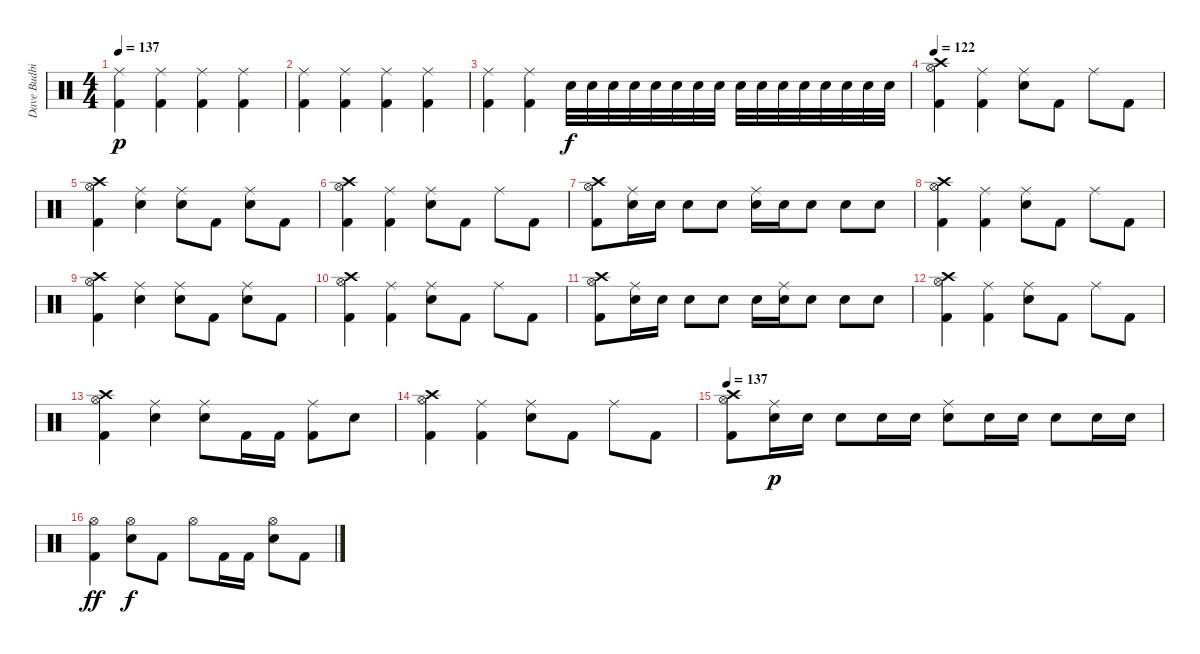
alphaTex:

\track ("Dave Budbill" "Dave Budbi") {instrument percussion}
\staff {score}
\articulation defaults
\ts (4 4)
\tempo 137
\clef neutral
\ks c
("Ride (middle)" "Kick (hit) 2").4{dy p} ("Ride (middle)" "Kick (hit) 2").4 ("Ride (middle)" "Kick (hit) 2").4 ("Ride (middle)" "Kick (hit) 2").4 |
("Ride (middle)" "Kick (hit) 2").4 ("Ride (middle)" "Kick (hit) 2").4 ("Ride (middle)" "Kick (hit) 2").4 ("Ride (middle)" "Kick (hit) 2").4 |
("Ride (middle)" "Kick (hit) 2").4 ("Ride (middle)" "Kick (hit) 2").4 "Snare (hit) 2".32{dy f} "Snare (hit) 2".32 "Snare (hit) 2".32 "Snare (hit) 2".32 "Snare (hit) 2".32 "Snare (hit) 2".32 "Snare (hit) 2".32 "Snare (hit) 2".32 "Snare (hit) 2".32 "Snare (hit) 2".32 "Snare (hit) 2".32 "Snare (hit) 2".32 "Snare (hit) 2".32 "Snare (hit) 2".32 "Snare (hit) 2".32 "Snare (hit) 2".32 |
\tempo 122
("Hi-Hat (open)" "Crash high (hit)" "Kick (hit) 2").4 ("Ride (middle)" "Kick (hit) 2").4 ("Ride (middle)" "Electric Snare (hit)").8 "Kick (hit) 2".8 "Ride (middle)".8 "Kick (hit) 2".8 |
("Hi-Hat (open)" "Crash high (hit)" "Kick (hit) 2").4 ("Ride (middle)" "Electric Snare (hit)").4 ("Ride (middle)" "Electric Snare (hit)").8 "Kick (hit) 2".8 ("Ride (middle)" "Electric Snare (hit)").8 "Kick (hit) 2".8 |
("Hi-Hat (open)" "Crash high (hit)" "Kick (hit) 2").4 ("Ride (middle)" "Kick (hit) 2").4 ("Ride (middle)" "Electric Snare (hit)").8 "Kick (hit) 2".8 "Ride (middle)".8 "Kick (hit) 2".8 |
("Hi-Hat (open)" "Crash high (hit)" "Kick (hit) 2").8 ("Ride (middle)" "Snare (hit) 2").16 "Snare (hit) 2".16 "Snare (hit) 2".8 "Snare (hit) 2".8 ("Ride (middle)" "Snare (hit) 2").16 "Snare (hit) 2".16 "Snare (hit) 2".8 "Snare (hit) 2".8 "Snare (hit) 2".8 |
("Hi-Hat (open)" "Crash high (hit)" "Kick (hit) 2").4 ("Ride (middle)" "Kick (hit) 2").4 ("Ride (middle)" "Electric Snare (hit)").8 "Kick (hit) 2".8 "Ride (middle)".8 "Kick (hit) 2".8 |
("Hi-Hat (open)" "Crash high (hit)" "Kick (hit) 2").4 ("Ride (middle)" "Electric Snare (hit)").4 ("Ride (middle)" "Electric Snare (hit)").8 "Kick (hit) 2".8 ("Ride (middle)" "Electric Snare (hit)").8 "Kick (hit) 2".8 |
("Hi-Hat (open)" "Crash high (hit)" "Kick (hit) 2").4 ("Ride (middle)" "Kick (hit) 2").4 ("Ride (middle)" "Electric Snare (hit)").8 "Kick (hit) 2".8 "Ride (middle)".8 "Kick (hit) 2".8 |
("Hi-Hat (open)" "Crash high (hit)" "Kick (hit) 2").8 ("Ride (middle)" "Snare (hit) 2").16 "Snare (hit) 2".16 "Snare (hit) 2".8 "Snare (hit) 2".8 "Snare (hit) 2".16 ("Ride (middle)" "Snare (hit) 2").16 "Snare (hit) 2".8 "Snare (hit) 2".8 "Snare (hit) 2".8 |
("Hi-Hat (open)" "Crash high (hit)" "Kick (hit) 2").4 ("Ride (middle)" "Kick (hit) 2").4 ("Ride (middle)" "Electric Snare (hit)").8 "Kick (hit) 2".8 "Ride (middle)".8 "Kick (hit) 2".8 |
("Hi-Hat (open)" "Crash high (hit)" "Kick (hit) 2").4 ("Ride (middle)" "Electric Snare (hit)").4 ("Ride (middle)" "Electric Snare (hit)").8 "Kick (hit) 2".16 "Kick (hit) 2".16 ("Ride (middle)" "Kick (hit) 2").8 "Electric Snare (hit)".8 |
("Hi-Hat (open)" "Crash high (hit)" "Kick (hit) 2").4 ("Ride (middle)" "Kick (hit) 2").4 ("Ride (middle)" "Electric Snare (hit)").8 "Kick (hit) 2".8 "Ride (middle)".8 "Kick (hit) 2".8 |
\tempo 137
("Hi-Hat (open)" "Crash high (hit)" "Kick (hit) 2").8 ("Ride (middle)" "Snare (hit) 2").16{dy p} "Snare (hit) 2".16 "Snare (hit) 2".8 "Snare (hit) 2".16 "Snare (hit) 2".16 ("Ride (middle)" "Snare (hit) 2").8 "Snare (hit) 2".16 "Snare (hit) 2".16 "Snare (hit) 2".8 "Snare (hit) 2".16 "Snare (hit) 2".16 |
("Hi-Hat (open)" "Kick (hit) 2").4{dy ff} ("Hi-Hat (open)" "Electric Snare (hit)").8{dy f} "Kick (hit) 2".8 "Hi-Hat (open)".8 "Kick (hit) 2".16 "Kick (hit) 2".16 ("Hi-Hat (open)" "Electric Snare (hit)").8 "Kick (hit) 2".8
